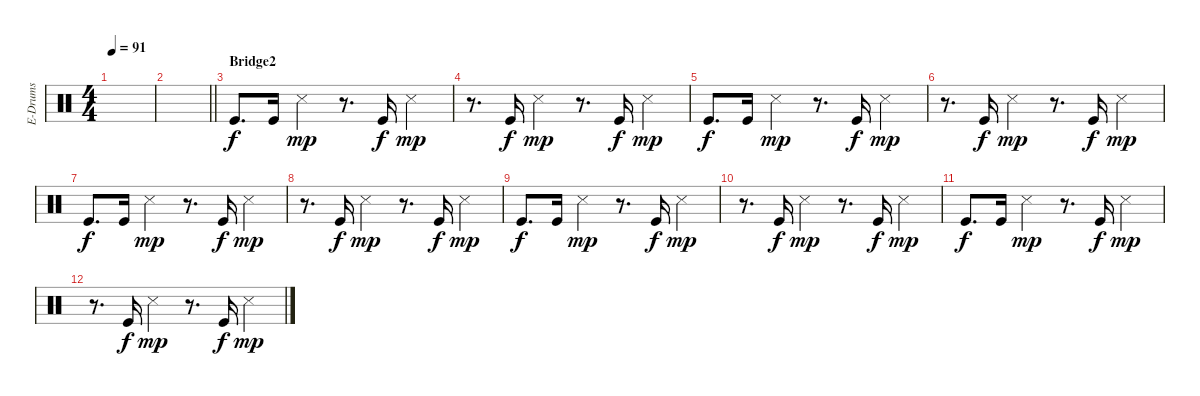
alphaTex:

\track ("E-Drums" "E-Drums") {instrument percussion}
\staff {score}
\articulation defaults
\ts (4 4)
\tempo 91
\clef neutral
\ks c
|
\barLineRight lightlight
|
\section ("" "Bridge2")
"Kick (hit)".8{d dy f} "Kick (hit)".16 "Snare (side stick) 3".4{dy mp} r.8{d} "Kick (hit)".16{dy f} "Snare (side stick) 3".4{dy mp} |
r.8{d} "Kick (hit)".16{dy f} "Snare (side stick) 3".4{dy mp} r.8{d} "Kick (hit)".16{dy f} "Snare (side stick) 3".4{dy mp} |
"Kick (hit)".8{d dy f} "Kick (hit)".16 "Snare (side stick) 3".4{dy mp} r.8{d} "Kick (hit)".16{dy f} "Snare (side stick) 3".4{dy mp} |
r.8{d} "Kick (hit)".16{dy f} "Snare (side stick) 3".4{dy mp} r.8{d} "Kick (hit)".16{dy f} "Snare (side stick) 3".4{dy mp} |
"Kick (hit)".8{d dy f} "Kick (hit)".16 "Snare (side stick) 3".4{dy mp} r.8{d} "Kick (hit)".16{dy f} "Snare (side stick) 3".4{dy mp} |
r.8{d} "Kick (hit)".16{dy f} "Snare (side stick) 3".4{dy mp} r.8{d} "Kick (hit)".16{dy f} "Snare (side stick) 3".4{dy mp} |
"Kick (hit)".8{d dy f} "Kick (hit)".16 "Snare (side stick) 3".4{dy mp} r.8{d} "Kick (hit)".16{dy f} "Snare (side stick) 3".4{dy mp} |
r.8{d} "Kick (hit)".16{dy f} "Snare (side stick) 3".4{dy mp} r.8{d} "Kick (hit)".16{dy f} "Snare (side stick) 3".4{dy mp} |
"Kick (hit)".8{d dy f} "Kick (hit)".16 "Snare (side stick) 3".4{dy mp} r.8{d} "Kick (hit)".16{dy f} "Snare (side stick) 3".4{dy mp} |
r.8{d} "Kick (hit)".16{dy f} "Snare (side stick) 3".4{dy mp} r.8{d} "Kick (hit)".16{dy f} "Snare (side stick) 3".4{dy mp}
